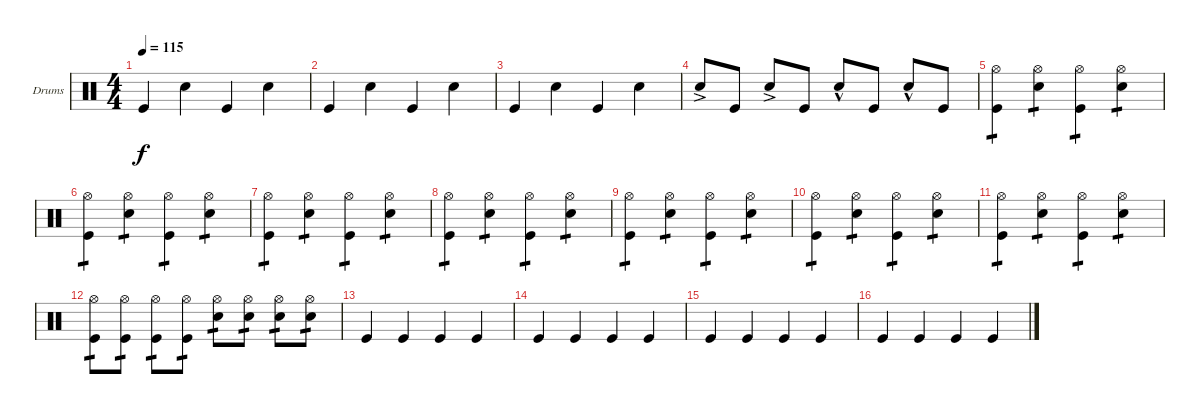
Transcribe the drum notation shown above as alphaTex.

\bracketExtendMode groupsimilarinstruments
\firstSystemTrackNameOrientation horizontal
\otherSystemsTrackNameOrientation horizontal
\track ("Drumkit" "Drums") {instrument percussion}
\staff {score}
\articulation defaults
\ts (4 4)
\tempo 115
\clef neutral
\scale
0.333333
\ks c "Kick (hit)".4{dy f} "Snare (hit) 2".4 "Kick (hit)".4 "Snare (hit) 2".4
|
\scale
0.333333 "Kick (hit)".4 "Snare (hit) 2".4 "Kick (hit)".4 "Snare (hit) 2".4 |
\scale
0.333333 "Kick (hit)".4 "Snare (hit) 2".4 "Kick (hit)".4 "Snare (hit) 2".4 |
\scale
0.333333 "Snare (hit) 2"{ac}.8 "Kick (hit)".8 "Snare (hit) 2"{ac}.8 "Kick (hit)".8 "Snare (hit) 2"{hac}.8 "Kick (hit)".8 "Snare (hit) 2"{hac}.8 "Kick (hit)".8 |
\scale
0.333333 ("Kick (hit)" "Hi-Hat (open)").4{tp 1} ("Snare (hit) 2" "Hi-Hat (open)").4{tp 1} ("Kick (hit)" "Hi-Hat (open)").4{tp 1} ("Snare (hit) 2" "Hi-Hat (open)").4{tp 1} |
\scale
0.333333 ("Kick (hit)" "Hi-Hat (open)").4{tp 1} ("Snare (hit) 2" "Hi-Hat (open)").4{tp 1} ("Kick (hit)" "Hi-Hat (open)").4{tp 1} ("Snare (hit) 2" "Hi-Hat (open)").4{tp 1} |
\scale
0.333333 ("Kick (hit)" "Hi-Hat (open)").4{tp 1} ("Snare (hit) 2" "Hi-Hat (open)").4{tp 1} ("Kick (hit)" "Hi-Hat (open)").4{tp 1} ("Snare (hit) 2" "Hi-Hat (open)").4{tp 1} |
\scale
0.333333 ("Kick (hit)" "Hi-Hat (open)").4{tp 1} ("Snare (hit) 2" "Hi-Hat (open)").4{tp 1} ("Kick (hit)" "Hi-Hat (open)").4{tp 1} ("Snare (hit) 2" "Hi-Hat (open)").4{tp 1} |
\scale
0.333333 ("Kick (hit)" "Hi-Hat (open)").4{tp 1} ("Snare (hit) 2" "Hi-Hat (open)").4{tp 1} ("Kick (hit)" "Hi-Hat (open)").4{tp 1} ("Snare (hit) 2" "Hi-Hat (open)").4{tp 1} |
\scale
0.333333 ("Kick (hit)" "Hi-Hat (open)").4{tp 1} ("Snare (hit) 2" "Hi-Hat (open)").4{tp 1} ("Kick (hit)" "Hi-Hat (open)").4{tp 1} ("Snare (hit) 2" "Hi-Hat (open)").4{tp 1} |
\scale
0.333333 ("Kick (hit)" "Hi-Hat (open)").4{tp 1} ("Snare (hit) 2" "Hi-Hat (open)").4{tp 1} ("Kick (hit)" "Hi-Hat (open)").4{tp 1} ("Snare (hit) 2" "Hi-Hat (open)").4{tp 1} |
\scale
0.333333 ("Kick (hit)" "Hi-Hat (open)").8{tp 1} ("Kick (hit)" "Hi-Hat (open)").8{tp 1} ("Kick (hit)" "Hi-Hat (open)").8{tp 1} ("Kick (hit)" "Hi-Hat (open)").8{tp 1} ("Snare (hit) 2" "Hi-Hat (open)").8{tp 1} ("Snare (hit) 2" "Hi-Hat (open)").8{tp 1} ("Snare (hit) 2" "Hi-Hat (open)").8{tp 1} ("Snare (hit) 2" "Hi-Hat (open)").8{tp 1} |
\scale
0.333333 "Kick (hit)".4 "Kick (hit)".4 "Kick (hit)".4 "Kick (hit)".4 |
\scale
0.333333 "Kick (hit)".4 "Kick (hit)".4 "Kick (hit)".4 "Kick (hit)".4 |
\scale
0.333333 "Kick (hit)".4 "Kick (hit)".4 "Kick (hit)".4 "Kick (hit)".4 |
\scale
0.333333 "Kick (hit)".4 "Kick (hit)".4 "Kick (hit)".4 "Kick (hit)".4
